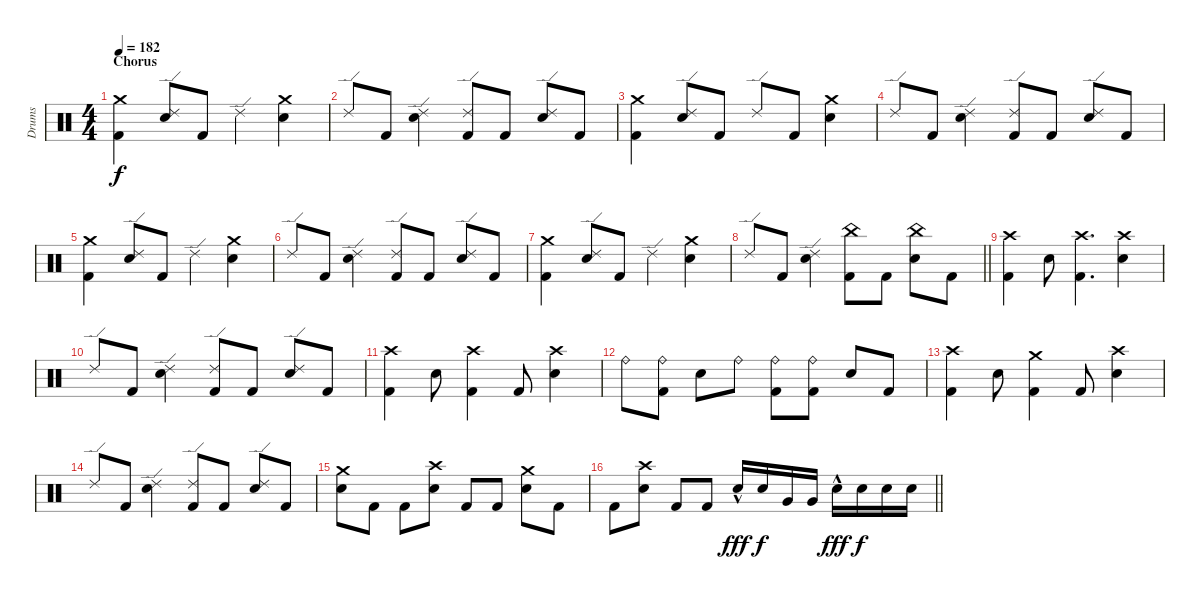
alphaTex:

\track ("Drums" "Drums") {instrument percussion}
\staff {score}
\articulation defaults
\ts (4 4)
\section ("" "Chorus")
\tempo 182
\clef neutral
\ks c
("Kick (hit) 2" "Crash medium (hit)").4{dy f} ("Snare (hit) 2" "Ride (edge) 2").8 "Kick (hit) 2".8 "Ride (edge) 2".4 ("Snare (hit) 2" "Crash medium (hit)").4 |
"Ride (edge) 2".8 "Kick (hit) 2".8 ("Snare (hit) 2" "Ride (edge) 2").4 ("Kick (hit) 2" "Ride (edge) 2").8 "Kick (hit) 2".8 ("Snare (hit) 2" "Ride (edge) 2").8 "Kick (hit) 2".8 |
("Kick (hit) 2" "Crash medium (hit)").4 ("Snare (hit) 2" "Ride (edge) 2").8 "Kick (hit) 2".8 "Ride (edge) 2".8 "Kick (hit) 2".8 ("Snare (hit) 2" "Crash medium (hit)").4 |
"Ride (edge) 2".8 "Kick (hit) 2".8 ("Snare (hit) 2" "Ride (edge) 2").4 ("Kick (hit) 2" "Ride (edge) 2").8 "Kick (hit) 2".8 ("Snare (hit) 2" "Ride (edge) 2").8 "Kick (hit) 2".8 |
("Kick (hit) 2" "Crash medium (hit)").4 ("Snare (hit) 2" "Ride (edge) 2").8 "Kick (hit) 2".8 "Ride (edge) 2".4 ("Snare (hit) 2" "Crash medium (hit)").4 |
"Ride (edge) 2".8 "Kick (hit) 2".8 ("Snare (hit) 2" "Ride (edge) 2").4 ("Kick (hit) 2" "Ride (edge) 2").8 "Kick (hit) 2".8 ("Snare (hit) 2" "Ride (edge) 2").8 "Kick (hit) 2".8 |
("Kick (hit) 2" "Crash medium (hit)").4 ("Snare (hit) 2" "Ride (edge) 2").8 "Kick (hit) 2".8 "Ride (edge) 2".4 ("Snare (hit) 2" "Crash medium (hit)").4 |
\barLineRight lightlight "Ride (edge) 2".8 "Kick (hit) 2".8
("Snare (hit) 2" "Ride (edge) 2").4 ("Kick (hit) 2" "China (hit)").8 "Kick (hit) 2".8 ("Snare (hit) 2" "China (hit)").8 "Kick (hit) 2".8 |
\section ("" "")
("Kick (hit) 2" "Crash high (hit)").4 "Snare (hit) 2".8 ("Kick (hit) 2" "Crash high (hit)").4{d} ("Snare (hit) 2" "Crash high (hit)").4 |
"Ride (edge) 2".8 "Kick (hit) 2".8 ("Snare (hit) 2" "Ride (edge) 2").4 ("Kick (hit) 2" "Ride (edge) 2").8 "Kick (hit) 2".8 ("Snare (hit) 2" "Ride (edge) 2").8 "Kick (hit) 2".8 |
("Kick (hit) 2" "Crash high (hit)").4 "Snare (hit) 2".8 ("Kick (hit) 2" "Crash high (hit)").4 "Kick (hit) 2".8 ("Snare (hit) 2" "Crash high (hit)").4 |
"Ride (bell)".8 ("Kick (hit) 2" "Ride (bell)").8 "Snare (hit) 2".8 "Ride (bell)".8 ("Kick (hit) 2" "Ride (bell)").8 ("Kick (hit) 2" "Ride (bell)").8 "Snare (hit) 2".8 "Kick (hit) 2".8 |
("Kick (hit) 2" "Crash high (hit)").4 "Snare (hit) 2".8 ("Kick (hit) 2" "Crash medium (hit)").4 "Kick (hit) 2".8 ("Snare (hit) 2" "Crash high (hit)").4 |
"Ride (edge) 2".8 "Kick (hit) 2".8 ("Snare (hit) 2" "Ride (edge) 2").4 ("Kick (hit) 2" "Ride (edge) 2").8 "Kick (hit) 2".8 ("Snare (hit) 2" "Ride (edge) 2").8 "Kick (hit) 2".8 |
("Snare (hit) 2" "Crash medium (hit)").8 "Kick (hit) 2".8 "Kick (hit) 2".8 ("Snare (hit) 2" "Crash high (hit)").8 "Kick (hit) 2".8 "Kick (hit) 2".8 ("Snare (hit) 2" "Crash medium (hit)").8 "Kick (hit) 2".8 |
\barLineRight lightlight "Kick (hit) 2".8
("Snare (hit) 2" "Crash high (hit)").8 "Kick (hit) 2".8 "Kick (hit) 2".8 "Snare (hit) 2"{hac}.16{dy fff} "Snare (hit) 2".16{dy f} "Very Low Tom (hit)".16 "Very Low Tom (hit)".16 "Snare (hit) 2"{hac}.16{dy fff} "Snare (hit) 2".16{dy f} "Snare (hit) 2".16 "Snare (hit) 2".16
